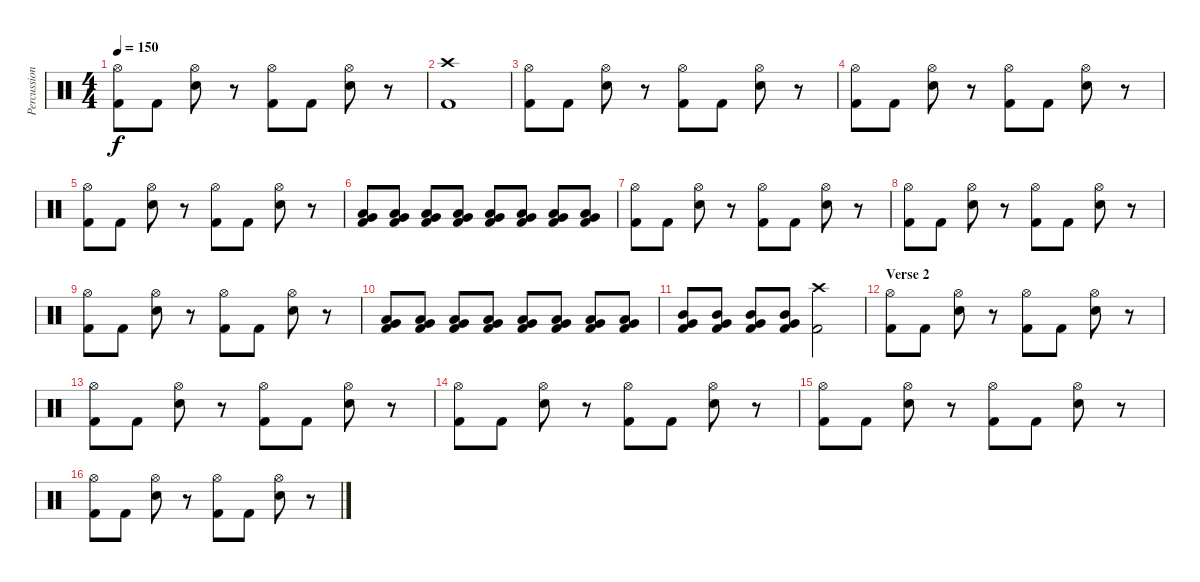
\track ("Percussion" "Percussion") {instrument percussion}
\staff {score}
\articulation defaults
\ts (4 4)
\tempo 150
\clef neutral
\ks c
("Hi-Hat (open)" "Kick (hit) 2").8{dy f} "Kick (hit) 2".8 ("Hi-Hat (open)" "Electric Snare (hit)").8 r.8 ("Hi-Hat (open)" "Kick (hit) 2").8 "Kick (hit) 2".8 ("Hi-Hat (open)" "Electric Snare (hit)").8 r.8 |
("Crash high (hit)" "Kick (hit) 2").1 |
("Hi-Hat (open)" "Kick (hit) 2").8 "Kick (hit) 2".8 ("Hi-Hat (open)" "Electric Snare (hit)").8 r.8 ("Hi-Hat (open)" "Kick (hit) 2").8 "Kick (hit) 2".8 ("Hi-Hat (open)" "Electric Snare (hit)").8 r.8 |
("Hi-Hat (open)" "Kick (hit) 2").8 "Kick (hit) 2".8 ("Hi-Hat (open)" "Electric Snare (hit)").8 r.8 ("Hi-Hat (open)" "Kick (hit) 2").8 "Kick (hit) 2".8 ("Hi-Hat (open)" "Electric Snare (hit)").8 r.8 |
("Hi-Hat (open)" "Kick (hit) 2").8 "Kick (hit) 2".8 ("Hi-Hat (open)" "Electric Snare (hit)").8 r.8 ("Hi-Hat (open)" "Kick (hit) 2").8 "Kick (hit) 2".8 ("Hi-Hat (open)" "Electric Snare (hit)").8 r.8 |
("Low Tom (hit)" "Very Low Tom (hit)" "Kick (hit) 2").8 ("Low Tom (hit)" "Very Low Tom (hit)" "Kick (hit) 2").8 ("Low Tom (hit)" "Very Low Tom (hit)" "Kick (hit) 2").8 ("Low Tom (hit)" "Very Low Tom (hit)" "Kick (hit) 2").8 ("Low Tom (hit)" "Very Low Tom (hit)" "Kick (hit) 2").8 ("Low Tom (hit)" "Very Low Tom (hit)" "Kick (hit) 2").8 ("Low Tom (hit)" "Very Low Tom (hit)" "Kick (hit) 2").8 ("Low Tom (hit)" "Very Low Tom (hit)" "Kick (hit) 2").8 |
("Hi-Hat (open)" "Kick (hit) 2").8 "Kick (hit) 2".8 ("Hi-Hat (open)" "Electric Snare (hit)").8 r.8 ("Hi-Hat (open)" "Kick (hit) 2").8 "Kick (hit) 2".8 ("Hi-Hat (open)" "Electric Snare (hit)").8 r.8 |
("Hi-Hat (open)" "Kick (hit) 2").8 "Kick (hit) 2".8 ("Hi-Hat (open)" "Electric Snare (hit)").8 r.8 ("Hi-Hat (open)" "Kick (hit) 2").8 "Kick (hit) 2".8 ("Hi-Hat (open)" "Electric Snare (hit)").8 r.8 |
("Hi-Hat (open)" "Kick (hit) 2").8 "Kick (hit) 2".8 ("Hi-Hat (open)" "Electric Snare (hit)").8 r.8 ("Hi-Hat (open)" "Kick (hit) 2").8 "Kick (hit) 2".8 ("Hi-Hat (open)" "Electric Snare (hit)").8 r.8 |
("Low Tom (hit)" "Very Low Tom (hit)" "Kick (hit) 2").8 ("Low Tom (hit)" "Very Low Tom (hit)" "Kick (hit) 2").8 ("Low Tom (hit)" "Very Low Tom (hit)" "Kick (hit) 2").8 ("Low Tom (hit)" "Very Low Tom (hit)" "Kick (hit) 2").8 ("Low Tom (hit)" "Very Low Tom (hit)" "Kick (hit) 2").8 ("Low Tom (hit)" "Very Low Tom (hit)" "Kick (hit) 2").8 ("Low Tom (hit)" "Very Low Tom (hit)" "Kick (hit) 2").8 ("Low Tom (hit)" "Very Low Tom (hit)" "Kick (hit) 2").8 |
("Mid Tom (hit)" "Very Low Tom (hit)" "Kick (hit) 2").8 ("Mid Tom (hit)" "Very Low Tom (hit)" "Kick (hit) 2").8 ("Mid Tom (hit)" "Very Low Tom (hit)" "Kick (hit) 2").8 ("Mid Tom (hit)" "Very Low Tom (hit)" "Kick (hit) 2").8 ("Crash high (hit)" "Kick (hit) 2").2 |
\section ("" "Verse 2")
("Hi-Hat (open)" "Kick (hit) 2").8 "Kick (hit) 2".8 ("Hi-Hat (open)" "Electric Snare (hit)").8 r.8 ("Hi-Hat (open)" "Kick (hit) 2").8 "Kick (hit) 2".8 ("Hi-Hat (open)" "Electric Snare (hit)").8 r.8 |
("Hi-Hat (open)" "Kick (hit) 2").8 "Kick (hit) 2".8 ("Hi-Hat (open)" "Electric Snare (hit)").8 r.8 ("Hi-Hat (open)" "Kick (hit) 2").8 "Kick (hit) 2".8 ("Hi-Hat (open)" "Electric Snare (hit)").8 r.8 |
("Hi-Hat (open)" "Kick (hit) 2").8 "Kick (hit) 2".8 ("Hi-Hat (open)" "Electric Snare (hit)").8 r.8 ("Hi-Hat (open)" "Kick (hit) 2").8 "Kick (hit) 2".8 ("Hi-Hat (open)" "Electric Snare (hit)").8 r.8 |
("Hi-Hat (open)" "Kick (hit) 2").8 "Kick (hit) 2".8 ("Hi-Hat (open)" "Electric Snare (hit)").8 r.8 ("Hi-Hat (open)" "Kick (hit) 2").8 "Kick (hit) 2".8 ("Hi-Hat (open)" "Electric Snare (hit)").8 r.8 |
("Hi-Hat (open)" "Kick (hit) 2").8 "Kick (hit) 2".8 ("Hi-Hat (open)" "Electric Snare (hit)").8 r.8 ("Hi-Hat (open)" "Kick (hit) 2").8 "Kick (hit) 2".8 ("Hi-Hat (open)" "Electric Snare (hit)").8 r.8
